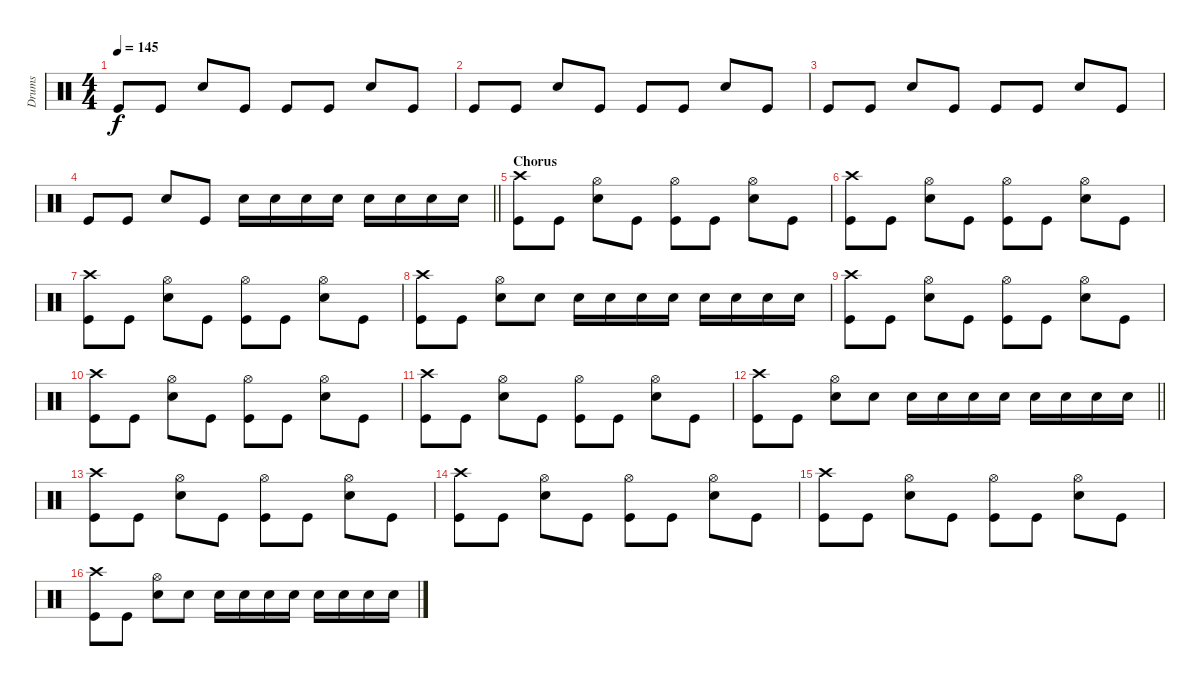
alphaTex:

\track ("Drums" "Drums") {instrument percussion}
\staff {score}
\articulation defaults
\ts (4 4)
\tempo 145
\clef neutral
\ks c "Kick (hit)".8{dy f} "Kick (hit)".8 "Snare (hit) 2".8 "Kick (hit)".8 "Kick (hit)".8 "Kick (hit)".8 "Snare (hit) 2".8 "Kick (hit)".8
|
"Kick (hit)".8 "Kick (hit)".8 "Snare (hit) 2".8 "Kick (hit)".8 "Kick (hit)".8 "Kick (hit)".8 "Snare (hit) 2".8 "Kick (hit)".8 |
"Kick (hit)".8 "Kick (hit)".8 "Snare (hit) 2".8 "Kick (hit)".8 "Kick (hit)".8 "Kick (hit)".8 "Snare (hit) 2".8 "Kick (hit)".8 |
\barLineRight lightlight "Kick (hit)".8 "Kick (hit)".8 "Snare (hit) 2".8 "Kick (hit)".8 "Snare (hit) 2".16 "Snare (hit) 2".16 "Snare (hit) 2".16 "Snare (hit) 2".16 "Snare (hit) 2".16 "Snare (hit) 2".16 "Snare (hit) 2".16 "Snare (hit) 2".16
|
\section ("" "Chorus")
("Crash high (hit)" "Kick (hit)").8 "Kick (hit)".8 ("Hi-Hat (open)" "Snare (hit) 2").8 "Kick (hit)".8 ("Hi-Hat (open)" "Kick (hit)").8 "Kick (hit)".8 ("Hi-Hat (open)" "Snare (hit) 2").8 "Kick (hit)".8 |
("Crash high (hit)" "Kick (hit)").8 "Kick (hit)".8 ("Hi-Hat (open)" "Snare (hit) 2").8 "Kick (hit)".8 ("Hi-Hat (open)" "Kick (hit)").8 "Kick (hit)".8 ("Hi-Hat (open)" "Snare (hit) 2").8 "Kick (hit)".8 |
("Crash high (hit)" "Kick (hit)").8 "Kick (hit)".8 ("Hi-Hat (open)" "Snare (hit) 2").8 "Kick (hit)".8 ("Hi-Hat (open)" "Kick (hit)").8 "Kick (hit)".8 ("Hi-Hat (open)" "Snare (hit) 2").8 "Kick (hit)".8 |
("Crash high (hit)" "Kick (hit)").8 "Kick (hit)".8 ("Hi-Hat (open)" "Snare (hit) 2").8 "Snare (hit) 2".8 "Snare (hit) 2".16 "Snare (hit) 2".16 "Snare (hit) 2".16 "Snare (hit) 2".16 "Snare (hit) 2".16 "Snare (hit) 2".16 "Snare (hit) 2".16 "Snare (hit) 2".16 |
("Crash high (hit)" "Kick (hit)").8 "Kick (hit)".8 ("Hi-Hat (open)" "Snare (hit) 2").8 "Kick (hit)".8 ("Hi-Hat (open)" "Kick (hit)").8 "Kick (hit)".8 ("Hi-Hat (open)" "Snare (hit) 2").8 "Kick (hit)".8 |
("Crash high (hit)" "Kick (hit)").8 "Kick (hit)".8 ("Hi-Hat (open)" "Snare (hit) 2").8 "Kick (hit)".8 ("Hi-Hat (open)" "Kick (hit)").8 "Kick (hit)".8 ("Hi-Hat (open)" "Snare (hit) 2").8 "Kick (hit)".8 |
("Crash high (hit)" "Kick (hit)").8 "Kick (hit)".8 ("Hi-Hat (open)" "Snare (hit) 2").8 "Kick (hit)".8 ("Hi-Hat (open)" "Kick (hit)").8 "Kick (hit)".8 ("Hi-Hat (open)" "Snare (hit) 2").8 "Kick (hit)".8 |
\barLineRight lightlight
("Crash high (hit)" "Kick (hit)").8 "Kick (hit)".8 ("Hi-Hat (open)" "Snare (hit) 2").8 "Snare (hit) 2".8 "Snare (hit) 2".16 "Snare (hit) 2".16 "Snare (hit) 2".16 "Snare (hit) 2".16 "Snare (hit) 2".16 "Snare (hit) 2".16 "Snare (hit) 2".16 "Snare (hit) 2".16 |
("Crash high (hit)" "Kick (hit)").8 "Kick (hit)".8 ("Hi-Hat (open)" "Snare (hit) 2").8 "Kick (hit)".8 ("Hi-Hat (open)" "Kick (hit)").8 "Kick (hit)".8 ("Hi-Hat (open)" "Snare (hit) 2").8 "Kick (hit)".8 |
("Crash high (hit)" "Kick (hit)").8 "Kick (hit)".8 ("Hi-Hat (open)" "Snare (hit) 2").8 "Kick (hit)".8 ("Hi-Hat (open)" "Kick (hit)").8 "Kick (hit)".8 ("Hi-Hat (open)" "Snare (hit) 2").8 "Kick (hit)".8 |
("Crash high (hit)" "Kick (hit)").8 "Kick (hit)".8 ("Hi-Hat (open)" "Snare (hit) 2").8 "Kick (hit)".8 ("Hi-Hat (open)" "Kick (hit)").8 "Kick (hit)".8 ("Hi-Hat (open)" "Snare (hit) 2").8 "Kick (hit)".8 |
("Crash high (hit)" "Kick (hit)").8 "Kick (hit)".8 ("Hi-Hat (open)" "Snare (hit) 2").8 "Snare (hit) 2".8 "Snare (hit) 2".16 "Snare (hit) 2".16 "Snare (hit) 2".16 "Snare (hit) 2".16 "Snare (hit) 2".16 "Snare (hit) 2".16 "Snare (hit) 2".16 "Snare (hit) 2".16
